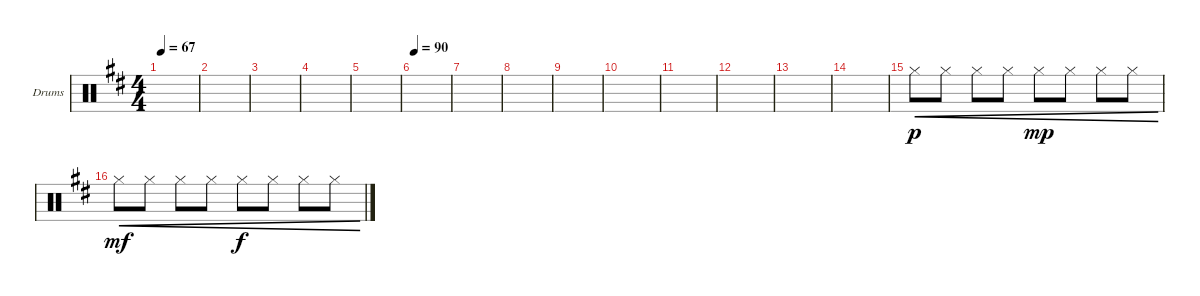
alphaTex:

\defaultSystemsLayout 4
\bracketExtendMode groupsimilarinstruments
\firstSystemTrackNameOrientation horizontal
\otherSystemsTrackNameOrientation horizontal
\track ("Drumkit" "Drums") {instrument percussion}
\staff {score}
\articulation defaults
\ts (4 4)
\tempo 67
\clef neutral
\scale
0.333333
\ks d
|
\scale
0.333333 |
\scale
0.333333 |
\scale
0.333333 |
\scale
0.333333 |
\tempo 90
\scale
0.333333 |
\scale
0.333333 |
\scale
0.333333 |
\scale
0.333333 |
\scale
0.333333 |
\scale
0.333333 |
\scale
0.333333 |
\scale
0.333333 |
\scale
0.333333 |
\scale
0.333333 "Hi-Hat (closed)".8{cre dy p} "Hi-Hat (closed)".8{cre} "Hi-Hat (closed)".8{cre} "Hi-Hat (closed)".8{cre} "Hi-Hat (closed)".8{cre dy mp} "Hi-Hat (closed)".8{cre} "Hi-Hat (closed)".8{cre} "Hi-Hat (closed)".8{cre} |
\scale
0.333333 "Hi-Hat (closed)".8{cre dy mf} "Hi-Hat (closed)".8{cre} "Hi-Hat (closed)".8{cre} "Hi-Hat (closed)".8{cre} "Hi-Hat (closed)".8{cre dy f} "Hi-Hat (closed)".8{cre} "Hi-Hat (closed)".8{cre} "Hi-Hat (closed)".8{cre}
